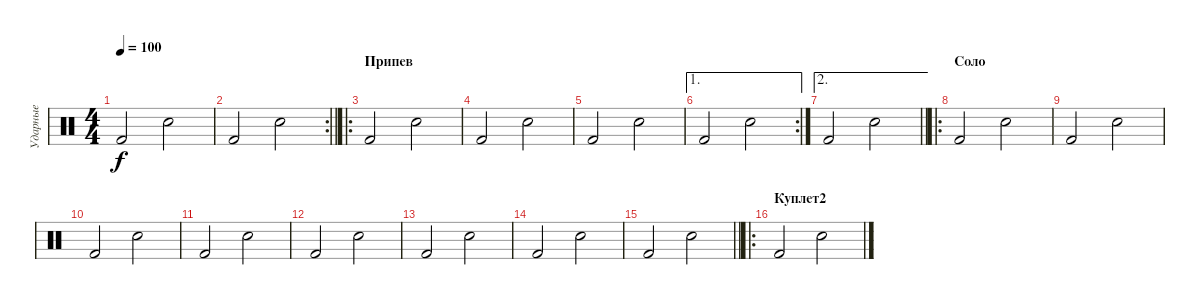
\track ("Ударные" "Ударные") {instrument percussion}
\staff {score}
\articulation defaults
\ts (4 4)
\tempo 100
\clef neutral
\ks c "Kick (hit) 2".2{dy f} "Electric Snare (hit)".2
|
\rc 2
\barLineRight lightlight "Kick (hit) 2".2 "Electric Snare (hit)".2
|
\ro
\section ("" "Припев")
"Kick (hit) 2".2 "Electric Snare (hit)".2 |
"Kick (hit) 2".2 "Electric Snare (hit)".2 |
"Kick (hit) 2".2 "Electric Snare (hit)".2 |
\ae 1
\rc 2 "Kick (hit) 2".2 "Electric Snare (hit)".2
|
\ae 2
\barLineRight lightlight "Kick (hit) 2".2 "Electric Snare (hit)".2
|
\ro
\section ("" "Соло")
"Kick (hit) 2".2 "Electric Snare (hit)".2 |
"Kick (hit) 2".2 "Electric Snare (hit)".2 |
"Kick (hit) 2".2 "Electric Snare (hit)".2 |
"Kick (hit) 2".2 "Electric Snare (hit)".2 |
"Kick (hit) 2".2 "Electric Snare (hit)".2 |
"Kick (hit) 2".2 "Electric Snare (hit)".2 |
"Kick (hit) 2".2 "Electric Snare (hit)".2 |
\barLineRight lightlight "Kick (hit) 2".2 "Electric Snare (hit)".2
|
\ro
\section ("" "Куплет2")
"Kick (hit) 2".2 "Electric Snare (hit)".2
